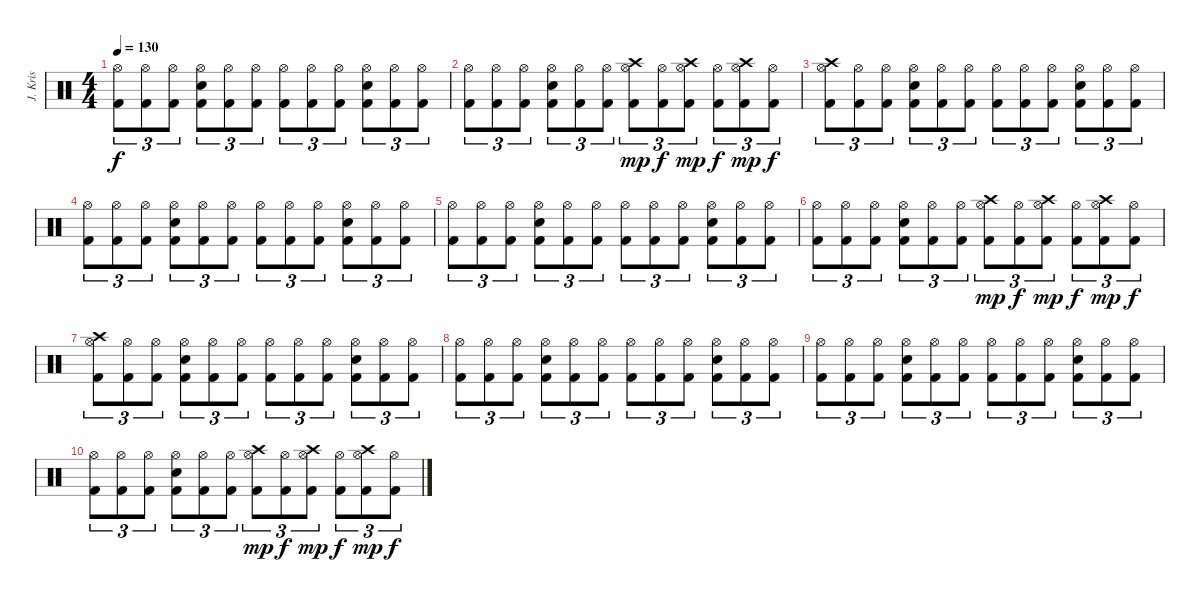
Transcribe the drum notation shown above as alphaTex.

\track ("   J. Kristensson (drums)" "   J. Kris") {instrument percussion}
\staff {score}
\articulation defaults
\ts (4 4)
\tempo 130
\clef neutral
\ks c
("Hi-Hat (open)" "Kick (hit) 2").8{tu (3 2) dy f} ("Hi-Hat (open)" "Kick (hit) 2").8{tu (3 2)} ("Hi-Hat (open)" "Kick (hit) 2").8{tu (3 2)} ("Hi-Hat (open)" "Electric Snare (hit)" "Kick (hit) 2").8{tu (3 2)} ("Hi-Hat (open)" "Kick (hit) 2").8{tu (3 2)} ("Hi-Hat (open)" "Kick (hit) 2").8{tu (3 2)} ("Hi-Hat (open)" "Kick (hit) 2").8{tu (3 2)} ("Hi-Hat (open)" "Kick (hit) 2").8{tu (3 2)} ("Hi-Hat (open)" "Kick (hit) 2").8{tu (3 2)} ("Hi-Hat (open)" "Electric Snare (hit)" "Kick (hit) 2").8{tu (3 2)} ("Hi-Hat (open)" "Kick (hit) 2").8{tu (3 2)} ("Hi-Hat (open)" "Kick (hit) 2").8{tu (3 2)} |
("Hi-Hat (open)" "Kick (hit) 2").8{tu (3 2)} ("Hi-Hat (open)" "Kick (hit) 2").8{tu (3 2)} ("Hi-Hat (open)" "Kick (hit) 2").8{tu (3 2)} ("Hi-Hat (open)" "Electric Snare (hit)" "Kick (hit) 2").8{tu (3 2)} ("Hi-Hat (open)" "Kick (hit) 2").8{tu (3 2)} ("Hi-Hat (open)" "Kick (hit) 2").8{tu (3 2)} ("Hi-Hat (open)" "Crash high (hit)" "Kick (hit) 2").8{tu (3 2) dy mp} ("Hi-Hat (open)" "Kick (hit) 2").8{tu (3 2) dy f} ("Hi-Hat (open)" "Crash high (hit)" "Kick (hit) 2").8{tu (3 2) dy mp} ("Hi-Hat (open)" "Kick (hit) 2").8{tu (3 2) dy f} ("Hi-Hat (open)" "Crash high (hit)" "Kick (hit) 2").8{tu (3 2) dy mp} ("Hi-Hat (open)" "Kick (hit) 2").8{tu (3 2) dy f} |
("Hi-Hat (open)" "Crash high (hit)" "Kick (hit) 2").8{tu (3 2)} ("Hi-Hat (open)" "Kick (hit) 2").8{tu (3 2)} ("Hi-Hat (open)" "Kick (hit) 2").8{tu (3 2)} ("Hi-Hat (open)" "Electric Snare (hit)" "Kick (hit) 2").8{tu (3 2)} ("Hi-Hat (open)" "Kick (hit) 2").8{tu (3 2)} ("Hi-Hat (open)" "Kick (hit) 2").8{tu (3 2)} ("Hi-Hat (open)" "Kick (hit) 2").8{tu (3 2)} ("Hi-Hat (open)" "Kick (hit) 2").8{tu (3 2)} ("Hi-Hat (open)" "Kick (hit) 2").8{tu (3 2)} ("Hi-Hat (open)" "Electric Snare (hit)" "Kick (hit) 2").8{tu (3 2)} ("Hi-Hat (open)" "Kick (hit) 2").8{tu (3 2)} ("Hi-Hat (open)" "Kick (hit) 2").8{tu (3 2)} |
("Hi-Hat (open)" "Kick (hit) 2").8{tu (3 2)} ("Hi-Hat (open)" "Kick (hit) 2").8{tu (3 2)} ("Hi-Hat (open)" "Kick (hit) 2").8{tu (3 2)} ("Hi-Hat (open)" "Electric Snare (hit)" "Kick (hit) 2").8{tu (3 2)} ("Hi-Hat (open)" "Kick (hit) 2").8{tu (3 2)} ("Hi-Hat (open)" "Kick (hit) 2").8{tu (3 2)} ("Hi-Hat (open)" "Kick (hit) 2").8{tu (3 2)} ("Hi-Hat (open)" "Kick (hit) 2").8{tu (3 2)} ("Hi-Hat (open)" "Kick (hit) 2").8{tu (3 2)} ("Hi-Hat (open)" "Electric Snare (hit)" "Kick (hit) 2").8{tu (3 2)} ("Hi-Hat (open)" "Kick (hit) 2").8{tu (3 2)} ("Hi-Hat (open)" "Kick (hit) 2").8{tu (3 2)} |
("Hi-Hat (open)" "Kick (hit) 2").8{tu (3 2)} ("Hi-Hat (open)" "Kick (hit) 2").8{tu (3 2)} ("Hi-Hat (open)" "Kick (hit) 2").8{tu (3 2)} ("Hi-Hat (open)" "Electric Snare (hit)" "Kick (hit) 2").8{tu (3 2)} ("Hi-Hat (open)" "Kick (hit) 2").8{tu (3 2)} ("Hi-Hat (open)" "Kick (hit) 2").8{tu (3 2)} ("Hi-Hat (open)" "Kick (hit) 2").8{tu (3 2)} ("Hi-Hat (open)" "Kick (hit) 2").8{tu (3 2)} ("Hi-Hat (open)" "Kick (hit) 2").8{tu (3 2)} ("Hi-Hat (open)" "Electric Snare (hit)" "Kick (hit) 2").8{tu (3 2)} ("Hi-Hat (open)" "Kick (hit) 2").8{tu (3 2)} ("Hi-Hat (open)" "Kick (hit) 2").8{tu (3 2)} |
("Hi-Hat (open)" "Kick (hit) 2").8{tu (3 2)} ("Hi-Hat (open)" "Kick (hit) 2").8{tu (3 2)} ("Hi-Hat (open)" "Kick (hit) 2").8{tu (3 2)} ("Hi-Hat (open)" "Electric Snare (hit)" "Kick (hit) 2").8{tu (3 2)} ("Hi-Hat (open)" "Kick (hit) 2").8{tu (3 2)} ("Hi-Hat (open)" "Kick (hit) 2").8{tu (3 2)} ("Hi-Hat (open)" "Crash high (hit)" "Kick (hit) 2").8{tu (3 2) dy mp} ("Hi-Hat (open)" "Kick (hit) 2").8{tu (3 2) dy f} ("Hi-Hat (open)" "Crash high (hit)" "Kick (hit) 2").8{tu (3 2) dy mp} ("Hi-Hat (open)" "Kick (hit) 2").8{tu (3 2) dy f} ("Hi-Hat (open)" "Crash high (hit)" "Kick (hit) 2").8{tu (3 2) dy mp} ("Hi-Hat (open)" "Kick (hit) 2").8{tu (3 2) dy f} |
("Hi-Hat (open)" "Crash high (hit)" "Kick (hit) 2").8{tu (3 2)} ("Hi-Hat (open)" "Kick (hit) 2").8{tu (3 2)} ("Hi-Hat (open)" "Kick (hit) 2").8{tu (3 2)} ("Hi-Hat (open)" "Electric Snare (hit)" "Kick (hit) 2").8{tu (3 2)} ("Hi-Hat (open)" "Kick (hit) 2").8{tu (3 2)} ("Hi-Hat (open)" "Kick (hit) 2").8{tu (3 2)} ("Hi-Hat (open)" "Kick (hit) 2").8{tu (3 2)} ("Hi-Hat (open)" "Kick (hit) 2").8{tu (3 2)} ("Hi-Hat (open)" "Kick (hit) 2").8{tu (3 2)} ("Hi-Hat (open)" "Electric Snare (hit)" "Kick (hit) 2").8{tu (3 2)} ("Hi-Hat (open)" "Kick (hit) 2").8{tu (3 2)} ("Hi-Hat (open)" "Kick (hit) 2").8{tu (3 2)} |
("Hi-Hat (open)" "Kick (hit) 2").8{tu (3 2)} ("Hi-Hat (open)" "Kick (hit) 2").8{tu (3 2)} ("Hi-Hat (open)" "Kick (hit) 2").8{tu (3 2)} ("Hi-Hat (open)" "Electric Snare (hit)" "Kick (hit) 2").8{tu (3 2)} ("Hi-Hat (open)" "Kick (hit) 2").8{tu (3 2)} ("Hi-Hat (open)" "Kick (hit) 2").8{tu (3 2)} ("Hi-Hat (open)" "Kick (hit) 2").8{tu (3 2)} ("Hi-Hat (open)" "Kick (hit) 2").8{tu (3 2)} ("Hi-Hat (open)" "Kick (hit) 2").8{tu (3 2)} ("Hi-Hat (open)" "Electric Snare (hit)" "Kick (hit) 2").8{tu (3 2)} ("Hi-Hat (open)" "Kick (hit) 2").8{tu (3 2)} ("Hi-Hat (open)" "Kick (hit) 2").8{tu (3 2)} |
("Hi-Hat (open)" "Kick (hit) 2").8{tu (3 2)} ("Hi-Hat (open)" "Kick (hit) 2").8{tu (3 2)} ("Hi-Hat (open)" "Kick (hit) 2").8{tu (3 2)} ("Hi-Hat (open)" "Electric Snare (hit)" "Kick (hit) 2").8{tu (3 2)} ("Hi-Hat (open)" "Kick (hit) 2").8{tu (3 2)} ("Hi-Hat (open)" "Kick (hit) 2").8{tu (3 2)} ("Hi-Hat (open)" "Kick (hit) 2").8{tu (3 2)} ("Hi-Hat (open)" "Kick (hit) 2").8{tu (3 2)} ("Hi-Hat (open)" "Kick (hit) 2").8{tu (3 2)} ("Hi-Hat (open)" "Electric Snare (hit)" "Kick (hit) 2").8{tu (3 2)} ("Hi-Hat (open)" "Kick (hit) 2").8{tu (3 2)} ("Hi-Hat (open)" "Kick (hit) 2").8{tu (3 2)} |
("Hi-Hat (open)" "Kick (hit) 2").8{tu (3 2)} ("Hi-Hat (open)" "Kick (hit) 2").8{tu (3 2)} ("Hi-Hat (open)" "Kick (hit) 2").8{tu (3 2)} ("Hi-Hat (open)" "Electric Snare (hit)" "Kick (hit) 2").8{tu (3 2)} ("Hi-Hat (open)" "Kick (hit) 2").8{tu (3 2)} ("Hi-Hat (open)" "Kick (hit) 2").8{tu (3 2)} ("Hi-Hat (open)" "Crash high (hit)" "Kick (hit) 2").8{tu (3 2) dy mp} ("Hi-Hat (open)" "Kick (hit) 2").8{tu (3 2) dy f} ("Hi-Hat (open)" "Crash high (hit)" "Kick (hit) 2").8{tu (3 2) dy mp} ("Hi-Hat (open)" "Kick (hit) 2").8{tu (3 2) dy f} ("Hi-Hat (open)" "Crash high (hit)" "Kick (hit) 2").8{tu (3 2) dy mp} ("Hi-Hat (open)" "Kick (hit) 2").8{tu (3 2) dy f}
